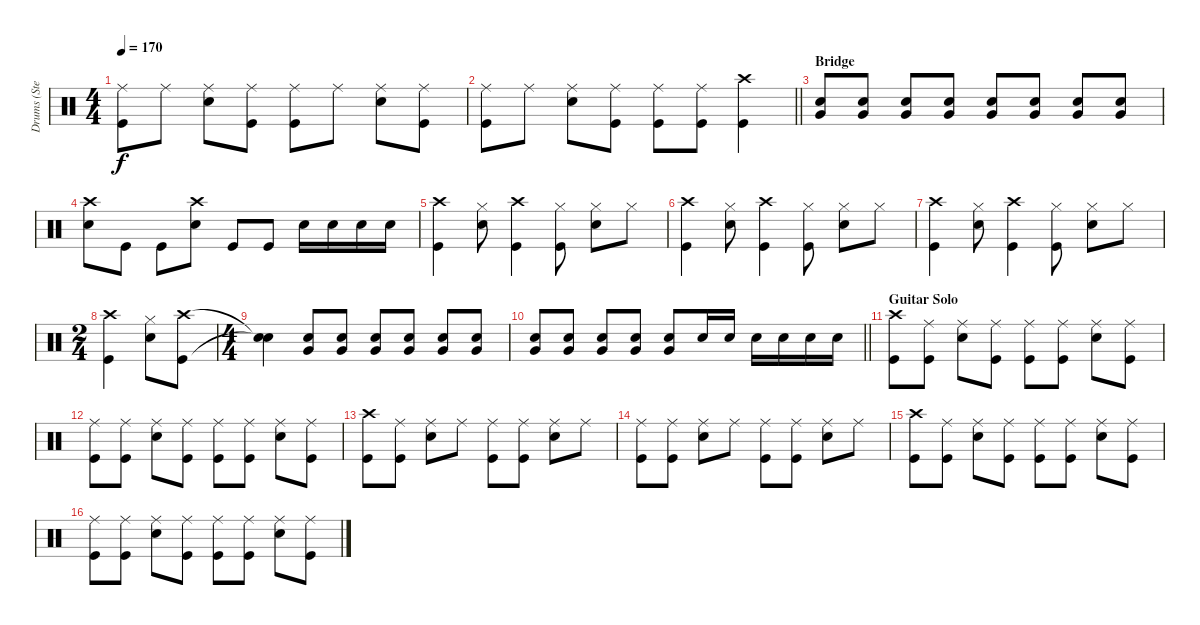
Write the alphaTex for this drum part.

\track ("Drums (Steven)" "Drums (Ste") {instrument percussion}
\staff {score}
\articulation defaults
\ts (4 4)
\tempo 170
\clef neutral
\ks c
("Ride (middle)" "Kick (hit)").8{dy f} "Ride (middle)".8 ("Ride (middle)" "Snare (hit) 2").8 ("Ride (middle)" "Kick (hit)").8 ("Ride (middle)" "Kick (hit)").8 "Ride (middle)".8 ("Ride (middle)" "Snare (hit) 2").8 ("Ride (middle)" "Kick (hit)").8 |
\barLineRight lightlight
("Ride (middle)" "Kick (hit)").8 "Ride (middle)".8 ("Ride (middle)" "Snare (hit) 2").8 ("Ride (middle)" "Kick (hit)").8 ("Ride (middle)" "Kick (hit)").8 ("Ride (middle)" "Kick (hit)").8 ("Crash high (hit)" "Kick (hit)").4 |
\section ("" "Bridge")
("Snare (hit) 2" "Very Low Tom (hit)").8 ("Snare (hit) 2" "Very Low Tom (hit)").8 ("Snare (hit) 2" "Very Low Tom (hit)").8 ("Snare (hit) 2" "Very Low Tom (hit)").8 ("Snare (hit) 2" "Very Low Tom (hit)").8 ("Snare (hit) 2" "Very Low Tom (hit)").8 ("Snare (hit) 2" "Very Low Tom (hit)").8 ("Snare (hit) 2" "Very Low Tom (hit)").8 |
("Crash high (hit)" "Snare (hit) 2").8 "Kick (hit)".8 "Kick (hit)".8 ("Crash high (hit)" "Snare (hit) 2").8 "Kick (hit)".8 "Kick (hit)".8 "Snare (hit) 2".16 "Snare (hit) 2".16 "Snare (hit) 2".16 "Snare (hit) 2".16 |
("Crash high (hit)" "Kick (hit)").4 ("Hi-Hat (closed)" "Snare (hit) 2").8 ("Crash high (hit)" "Kick (hit)").4 ("Hi-Hat (closed)" "Kick (hit)").8 ("Hi-Hat (closed)" "Snare (hit) 2").8 "Hi-Hat (closed)".8 |
("Crash high (hit)" "Kick (hit)").4 ("Hi-Hat (closed)" "Snare (hit) 2").8 ("Crash high (hit)" "Kick (hit)").4 ("Hi-Hat (closed)" "Kick (hit)").8 ("Hi-Hat (closed)" "Snare (hit) 2").8 "Hi-Hat (closed)".8 |
("Crash high (hit)" "Kick (hit)").4 ("Hi-Hat (closed)" "Snare (hit) 2").8 ("Crash high (hit)" "Kick (hit)").4 ("Hi-Hat (closed)" "Kick (hit)").8 ("Hi-Hat (closed)" "Snare (hit) 2").8 "Hi-Hat (closed)".8 |
\ts (2 4)
("Crash high (hit)" "Kick (hit)").4 ("Hi-Hat (closed)" "Snare (hit) 2").8 ("Crash high (hit)" "Kick (hit)").8 |
\ts (4 4)
("Snare (hit)"{t} "Snare (hit)"{t}).4 ("Snare (hit) 2" "Very Low Tom (hit)").8 ("Snare (hit) 2" "Very Low Tom (hit)").8 ("Snare (hit) 2" "Very Low Tom (hit)").8 ("Snare (hit) 2" "Very Low Tom (hit)").8 ("Snare (hit) 2" "Very Low Tom (hit)").8 ("Snare (hit) 2" "Very Low Tom (hit)").8 |
\barLineRight lightlight
("Snare (hit) 2" "Very Low Tom (hit)").8 ("Snare (hit) 2" "Very Low Tom (hit)").8 ("Snare (hit) 2" "Very Low Tom (hit)").8 ("Snare (hit) 2" "Very Low Tom (hit)").8 ("Snare (hit) 2" "Very Low Tom (hit)").8 "Snare (hit) 2".16 "Snare (hit) 2".16 "Snare (hit) 2".16 "Snare (hit) 2".16 "Snare (hit) 2".16 "Snare (hit) 2".16 |
\section ("" "Guitar Solo")
("Crash high (hit)" "Kick (hit)").8 ("Ride (middle)" "Kick (hit)").8 ("Ride (middle)" "Snare (hit) 2").8 ("Ride (middle)" "Kick (hit)").8 ("Ride (middle)" "Kick (hit)").8 ("Ride (middle)" "Kick (hit)").8 ("Ride (middle)" "Snare (hit) 2").8 ("Ride (middle)" "Kick (hit)").8 |
("Ride (middle)" "Kick (hit)").8 ("Ride (middle)" "Kick (hit)").8 ("Ride (middle)" "Snare (hit) 2").8 ("Ride (middle)" "Kick (hit)").8 ("Ride (middle)" "Kick (hit)").8 ("Ride (middle)" "Kick (hit)").8 ("Ride (middle)" "Snare (hit) 2").8 ("Ride (middle)" "Kick (hit)").8 |
("Crash high (hit)" "Kick (hit)").8 ("Ride (middle)" "Kick (hit)").8 ("Ride (middle)" "Snare (hit) 2").8 "Ride (middle)".8 ("Ride (middle)" "Kick (hit)").8 ("Ride (middle)" "Kick (hit)").8 ("Ride (middle)" "Snare (hit) 2").8 "Ride (middle)".8 |
("Ride (middle)" "Kick (hit)").8 ("Ride (middle)" "Kick (hit)").8 ("Ride (middle)" "Snare (hit) 2").8 "Ride (middle)".8 ("Ride (middle)" "Kick (hit)").8 ("Ride (middle)" "Kick (hit)").8 ("Ride (middle)" "Snare (hit) 2").8 "Ride (middle)".8 |
("Crash high (hit)" "Kick (hit)").8 ("Ride (middle)" "Kick (hit)").8 ("Ride (middle)" "Snare (hit) 2").8 ("Ride (middle)" "Kick (hit)").8 ("Ride (middle)" "Kick (hit)").8 ("Ride (middle)" "Kick (hit)").8 ("Ride (middle)" "Snare (hit) 2").8 ("Ride (middle)" "Kick (hit)").8 |
("Ride (middle)" "Kick (hit)").8 ("Ride (middle)" "Kick (hit)").8 ("Ride (middle)" "Snare (hit) 2").8 ("Ride (middle)" "Kick (hit)").8 ("Ride (middle)" "Kick (hit)").8 ("Ride (middle)" "Kick (hit)").8 ("Ride (middle)" "Snare (hit) 2").8 ("Ride (middle)" "Kick (hit)").8
